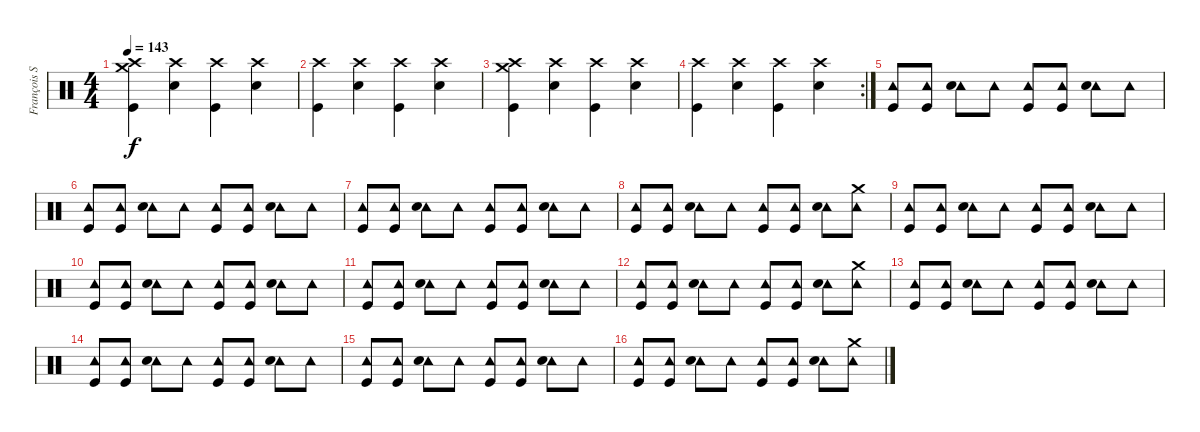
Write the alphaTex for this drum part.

\track ("François Soulier" "François S") {instrument percussion}
\staff {score}
\articulation defaults
\ts (4 4)
\tempo 143
\clef neutral
\ks c
("Crash high (hit)" "Crash medium (hit)" "Kick (hit)").4{dy f} ("Crash high (hit)" "Snare (hit) 2").4 ("Crash high (hit)" "Kick (hit)").4 ("Crash high (hit)" "Snare (hit) 2").4 |
("Crash high (hit)" "Kick (hit)").4 ("Crash high (hit)" "Snare (hit) 2").4 ("Crash high (hit)" "Kick (hit)").4 ("Crash high (hit)" "Snare (hit) 2").4 |
("Crash high (hit)" "Crash medium (hit)" "Kick (hit)").4 ("Crash high (hit)" "Snare (hit) 2").4 ("Crash high (hit)" "Kick (hit)").4 ("Crash high (hit)" "Snare (hit) 2").4 |
\rc 2
("Crash high (hit)" "Kick (hit)").4 ("Crash high (hit)" "Snare (hit) 2").4 ("Crash high (hit)" "Kick (hit)").4 ("Crash high (hit)" "Snare (hit) 2").4 |
("Tambourine (hit)" "Kick (hit)").8 ("Tambourine (hit)" "Kick (hit)").8 ("Tambourine (hit)" "Snare (hit) 2").8 "Tambourine (hit)".8 ("Tambourine (hit)" "Kick (hit)").8 ("Tambourine (hit)" "Kick (hit)").8 ("Tambourine (hit)" "Snare (hit) 2").8 "Tambourine (hit)".8 |
("Tambourine (hit)" "Kick (hit)").8 ("Tambourine (hit)" "Kick (hit)").8 ("Tambourine (hit)" "Snare (hit) 2").8 "Tambourine (hit)".8 ("Tambourine (hit)" "Kick (hit)").8 ("Tambourine (hit)" "Kick (hit)").8 ("Tambourine (hit)" "Snare (hit) 2").8 "Tambourine (hit)".8 |
("Tambourine (hit)" "Kick (hit)").8 ("Tambourine (hit)" "Kick (hit)").8 ("Tambourine (hit)" "Snare (hit) 2").8 "Tambourine (hit)".8 ("Tambourine (hit)" "Kick (hit)").8 ("Tambourine (hit)" "Kick (hit)").8 ("Tambourine (hit)" "Snare (hit) 2").8 "Tambourine (hit)".8 |
("Tambourine (hit)" "Kick (hit)").8 ("Tambourine (hit)" "Kick (hit)").8 ("Tambourine (hit)" "Snare (hit) 2").8 "Tambourine (hit)".8 ("Tambourine (hit)" "Kick (hit)").8 ("Tambourine (hit)" "Kick (hit)").8 ("Tambourine (hit)" "Snare (hit) 2").8 ("Tambourine (hit)" "Crash medium (hit)").8 |
("Tambourine (hit)" "Kick (hit)").8 ("Tambourine (hit)" "Kick (hit)").8 ("Tambourine (hit)" "Snare (hit) 2").8 "Tambourine (hit)".8 ("Tambourine (hit)" "Kick (hit)").8 ("Tambourine (hit)" "Kick (hit)").8 ("Tambourine (hit)" "Snare (hit) 2").8 "Tambourine (hit)".8 |
("Tambourine (hit)" "Kick (hit)").8 ("Tambourine (hit)" "Kick (hit)").8 ("Tambourine (hit)" "Snare (hit) 2").8 "Tambourine (hit)".8 ("Tambourine (hit)" "Kick (hit)").8 ("Tambourine (hit)" "Kick (hit)").8 ("Tambourine (hit)" "Snare (hit) 2").8 "Tambourine (hit)".8 |
("Tambourine (hit)" "Kick (hit)").8 ("Tambourine (hit)" "Kick (hit)").8 ("Tambourine (hit)" "Snare (hit) 2").8 "Tambourine (hit)".8 ("Tambourine (hit)" "Kick (hit)").8 ("Tambourine (hit)" "Kick (hit)").8 ("Tambourine (hit)" "Snare (hit) 2").8 "Tambourine (hit)".8 |
("Tambourine (hit)" "Kick (hit)").8 ("Tambourine (hit)" "Kick (hit)").8 ("Tambourine (hit)" "Snare (hit) 2").8 "Tambourine (hit)".8 ("Tambourine (hit)" "Kick (hit)").8 ("Tambourine (hit)" "Kick (hit)").8 ("Tambourine (hit)" "Snare (hit) 2").8 ("Tambourine (hit)" "Crash medium (hit)").8 |
("Tambourine (hit)" "Kick (hit)").8 ("Tambourine (hit)" "Kick (hit)").8 ("Tambourine (hit)" "Snare (hit) 2").8 "Tambourine (hit)".8 ("Tambourine (hit)" "Kick (hit)").8 ("Tambourine (hit)" "Kick (hit)").8 ("Tambourine (hit)" "Snare (hit) 2").8 "Tambourine (hit)".8 |
("Tambourine (hit)" "Kick (hit)").8 ("Tambourine (hit)" "Kick (hit)").8 ("Tambourine (hit)" "Snare (hit) 2").8 "Tambourine (hit)".8 ("Tambourine (hit)" "Kick (hit)").8 ("Tambourine (hit)" "Kick (hit)").8 ("Tambourine (hit)" "Snare (hit) 2").8 "Tambourine (hit)".8 |
("Tambourine (hit)" "Kick (hit)").8 ("Tambourine (hit)" "Kick (hit)").8 ("Tambourine (hit)" "Snare (hit) 2").8 "Tambourine (hit)".8 ("Tambourine (hit)" "Kick (hit)").8 ("Tambourine (hit)" "Kick (hit)").8 ("Tambourine (hit)" "Snare (hit) 2").8 "Tambourine (hit)".8 |
("Tambourine (hit)" "Kick (hit)").8 ("Tambourine (hit)" "Kick (hit)").8 ("Tambourine (hit)" "Snare (hit) 2").8 "Tambourine (hit)".8 ("Tambourine (hit)" "Kick (hit)").8 ("Tambourine (hit)" "Kick (hit)").8 ("Tambourine (hit)" "Snare (hit) 2").8 ("Tambourine (hit)" "Crash medium (hit)").8
